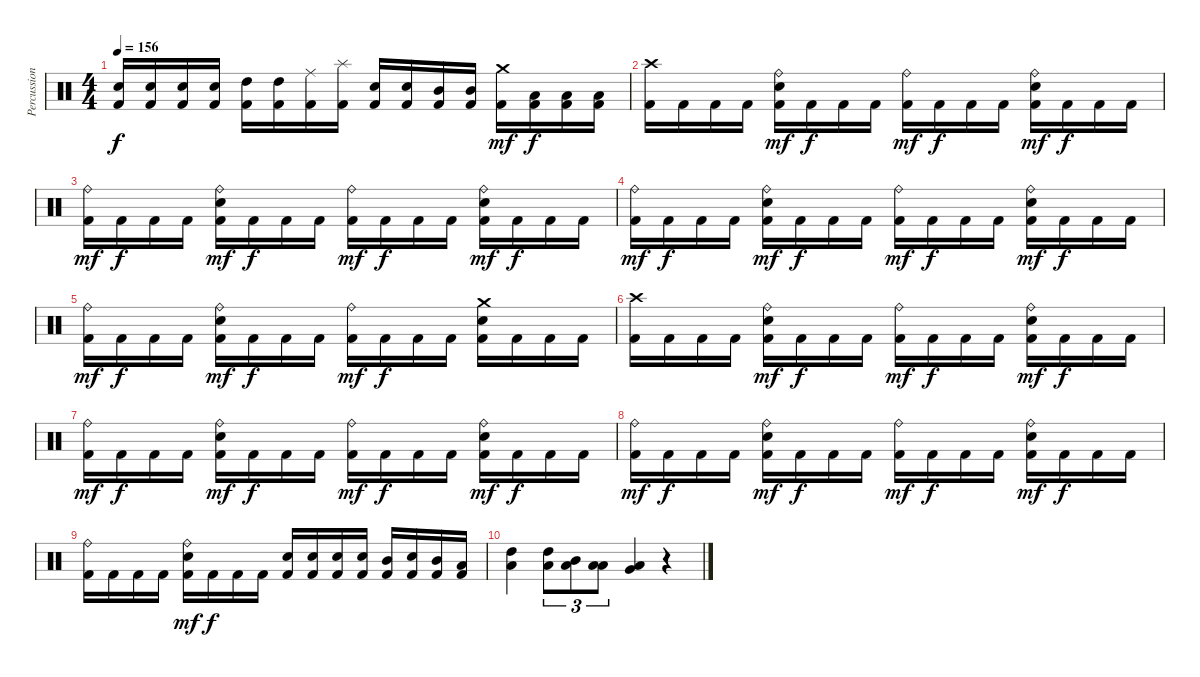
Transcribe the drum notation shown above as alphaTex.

\track ("Percussion" "Percussion") {instrument percussion}
\staff {score}
\articulation defaults
\ts (4 4)
\tempo 156
\clef neutral
\ks c
("Electric Snare (hit)" "Kick (hit) 2").16{dy f} ("Electric Snare (hit)" "Kick (hit) 2").16 ("Electric Snare (hit)" "Kick (hit) 2").16 ("Electric Snare (hit)" "Kick (hit) 2").16 ("High Tom (hit)" "Kick (hit) 2").16 ("High Tom (hit)" "Kick (hit) 2").16 ("Ride (middle)" "Kick (hit) 2").16 ("Splash (hit)" "Kick (hit) 2").16 ("Electric Snare (hit)" "Kick (hit) 2").16 ("Electric Snare (hit)" "Kick (hit) 2").16 ("Mid Tom (hit)" "Kick (hit) 2").16 ("Mid Tom (hit)" "Kick (hit) 2").16 ("Crash medium (hit)" "Kick (hit) 2").16{dy mf} ("Low Tom (hit)" "Kick (hit) 2").16{dy f} ("Low Tom (hit)" "Kick (hit) 2").16 ("Low Tom (hit)" "Kick (hit) 2").16 |
("Crash high (hit)" "Kick (hit) 2").16 "Kick (hit) 2".16 "Kick (hit) 2".16 "Kick (hit) 2".16 ("Ride (bell)" "Electric Snare (hit)" "Kick (hit) 2").16{dy mf} "Kick (hit) 2".16{dy f} "Kick (hit) 2".16 "Kick (hit) 2".16 ("Ride (bell)" "Kick (hit) 2").16{dy mf} "Kick (hit) 2".16{dy f} "Kick (hit) 2".16 "Kick (hit) 2".16 ("Ride (bell)" "Electric Snare (hit)" "Kick (hit) 2").16{dy mf} "Kick (hit) 2".16{dy f} "Kick (hit) 2".16 "Kick (hit) 2".16 |
("Ride (bell)" "Kick (hit) 2").16{dy mf} "Kick (hit) 2".16{dy f} "Kick (hit) 2".16 "Kick (hit) 2".16 ("Ride (bell)" "Electric Snare (hit)" "Kick (hit) 2").16{dy mf} "Kick (hit) 2".16{dy f} "Kick (hit) 2".16 "Kick (hit) 2".16 ("Ride (bell)" "Kick (hit) 2").16{dy mf} "Kick (hit) 2".16{dy f} "Kick (hit) 2".16 "Kick (hit) 2".16 ("Ride (bell)" "Electric Snare (hit)" "Kick (hit) 2").16{dy mf} "Kick (hit) 2".16{dy f} "Kick (hit) 2".16 "Kick (hit) 2".16 |
("Ride (bell)" "Kick (hit) 2").16{dy mf} "Kick (hit) 2".16{dy f} "Kick (hit) 2".16 "Kick (hit) 2".16 ("Ride (bell)" "Electric Snare (hit)" "Kick (hit) 2").16{dy mf} "Kick (hit) 2".16{dy f} "Kick (hit) 2".16 "Kick (hit) 2".16 ("Ride (bell)" "Kick (hit) 2").16{dy mf} "Kick (hit) 2".16{dy f} "Kick (hit) 2".16 "Kick (hit) 2".16 ("Ride (bell)" "Electric Snare (hit)" "Kick (hit) 2").16{dy mf} "Kick (hit) 2".16{dy f} "Kick (hit) 2".16 "Kick (hit) 2".16 |
("Ride (bell)" "Kick (hit) 2").16{dy mf} "Kick (hit) 2".16{dy f} "Kick (hit) 2".16 "Kick (hit) 2".16 ("Ride (bell)" "Electric Snare (hit)" "Kick (hit) 2").16{dy mf} "Kick (hit) 2".16{dy f} "Kick (hit) 2".16 "Kick (hit) 2".16 ("Ride (bell)" "Kick (hit) 2").16{dy mf} "Kick (hit) 2".16{dy f} "Kick (hit) 2".16 "Kick (hit) 2".16 ("Crash medium (hit)" "Electric Snare (hit)" "Kick (hit) 2").16 "Kick (hit) 2".16 "Kick (hit) 2".16 "Kick (hit) 2".16 |
("Crash high (hit)" "Kick (hit) 2").16 "Kick (hit) 2".16 "Kick (hit) 2".16 "Kick (hit) 2".16 ("Ride (bell)" "Electric Snare (hit)" "Kick (hit) 2").16{dy mf} "Kick (hit) 2".16{dy f} "Kick (hit) 2".16 "Kick (hit) 2".16 ("Ride (bell)" "Kick (hit) 2").16{dy mf} "Kick (hit) 2".16{dy f} "Kick (hit) 2".16 "Kick (hit) 2".16 ("Ride (bell)" "Electric Snare (hit)" "Kick (hit) 2").16{dy mf} "Kick (hit) 2".16{dy f} "Kick (hit) 2".16 "Kick (hit) 2".16 |
("Ride (bell)" "Kick (hit) 2").16{dy mf} "Kick (hit) 2".16{dy f} "Kick (hit) 2".16 "Kick (hit) 2".16 ("Ride (bell)" "Electric Snare (hit)" "Kick (hit) 2").16{dy mf} "Kick (hit) 2".16{dy f} "Kick (hit) 2".16 "Kick (hit) 2".16 ("Ride (bell)" "Kick (hit) 2").16{dy mf} "Kick (hit) 2".16{dy f} "Kick (hit) 2".16 "Kick (hit) 2".16 ("Ride (bell)" "Electric Snare (hit)" "Kick (hit) 2").16{dy mf} "Kick (hit) 2".16{dy f} "Kick (hit) 2".16 "Kick (hit) 2".16 |
("Ride (bell)" "Kick (hit) 2").16{dy mf} "Kick (hit) 2".16{dy f} "Kick (hit) 2".16 "Kick (hit) 2".16 ("Ride (bell)" "Electric Snare (hit)" "Kick (hit) 2").16{dy mf} "Kick (hit) 2".16{dy f} "Kick (hit) 2".16 "Kick (hit) 2".16 ("Ride (bell)" "Kick (hit) 2").16{dy mf} "Kick (hit) 2".16{dy f} "Kick (hit) 2".16 "Kick (hit) 2".16 ("Ride (bell)" "Electric Snare (hit)" "Kick (hit) 2").16{dy mf} "Kick (hit) 2".16{dy f} "Kick (hit) 2".16 "Kick (hit) 2".16 |
("Ride (bell)" "Kick (hit) 2").16 "Kick (hit) 2".16 "Kick (hit) 2".16 "Kick (hit) 2".16 ("Ride (bell)" "Electric Snare (hit)" "Kick (hit) 2").16{dy mf} "Kick (hit) 2".16{dy f} "Kick (hit) 2".16 "Kick (hit) 2".16 ("Electric Snare (hit)" "Kick (hit) 2").16 ("Electric Snare (hit)" "Kick (hit) 2").16 ("Electric Snare (hit)" "Kick (hit) 2").16 ("Electric Snare (hit)" "Kick (hit) 2").16 ("Mid Tom (hit)" "Kick (hit) 2").16 ("Electric Snare (hit)" "Kick (hit) 2").16 ("Mid Tom (hit)" "Kick (hit) 2").16 ("Low Tom (hit)" "Kick (hit) 2").16 |
("High Tom (hit)" "Low Tom (hit)").4 ("High Tom (hit)" "Low Tom (hit)").8{tu (3 2)} ("Mid Tom (hit)" "Low Tom (hit)").8{tu (3 2)} ("Low Tom (hit)" "Low Tom (hit)").8{tu (3 2)} ("Very Low Tom (hit)" "Low Tom (hit)").4 r.4
